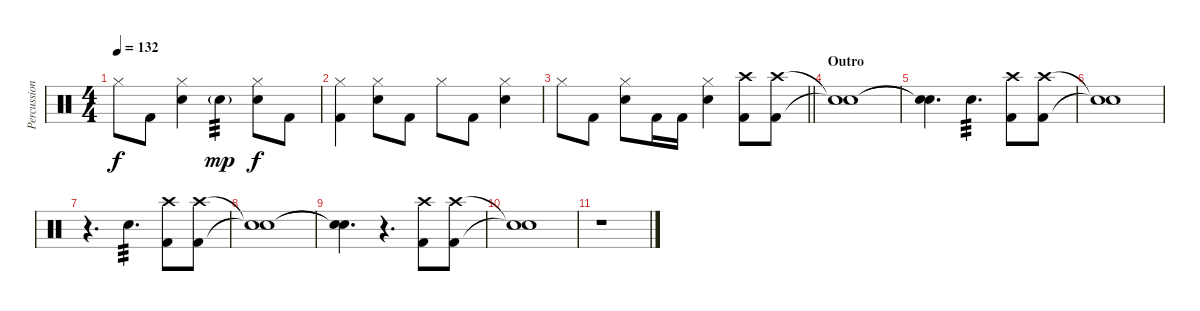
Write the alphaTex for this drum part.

\track ("Percussion" "Percussion") {instrument percussion}
\staff {score}
\articulation defaults
\ts (4 4)
\tempo 132
\clef neutral
\ks c "Hi-Hat (closed)".8{dy f} "Kick (hit) 2".8
("Hi-Hat (closed)" "Snare (hit) 2").4 "Snare (hit) 2"{g}.4{tp 3 dy mp} ("Hi-Hat (closed)" "Snare (hit) 2").8{dy f} "Kick (hit) 2".8 |
("Hi-Hat (closed)" "Kick (hit) 2").4 ("Hi-Hat (closed)" "Snare (hit) 2").8 "Kick (hit) 2".8 "Hi-Hat (closed)".8 "Kick (hit) 2".8 ("Hi-Hat (closed)" "Snare (hit) 2").4 |
\barLineRight lightlight "Hi-Hat (closed)".8 "Kick (hit) 2".8
("Hi-Hat (closed)" "Snare (hit) 2").8 "Kick (hit) 2".16 "Kick (hit) 2".16 ("Hi-Hat (closed)" "Snare (hit) 2").4 ("Crash high (hit)" "Kick (hit) 2").8 ("Crash high (hit)" "Kick (hit) 2").8 |
\section ("" "Outro")
("Snare (hit)"{t} "Snare (hit)"{t}).1 |
("Snare (hit)"{t} "Snare (hit)"{t}).4{d} "Snare (hit) 2".4{d tp 3} ("Crash high (hit)" "Kick (hit) 2").8 ("Crash high (hit)" "Kick (hit) 2").8 |
("Snare (hit)"{t} "Snare (hit)"{t}).1 |
r.4{d} "Snare (hit) 2".4{d tp 3} ("Crash high (hit)" "Kick (hit) 2").8 ("Crash high (hit)" "Kick (hit) 2").8 |
("Snare (hit)"{t} "Snare (hit)"{t}).1 |
("Snare (hit)"{t} "Snare (hit)"{t}).4{d} r.4{d} ("Crash high (hit)" "Kick (hit) 2").8 ("Crash high (hit)" "Kick (hit) 2").8 |
("Snare (hit)"{t} "Snare (hit)"{t}).1 |
r.1
